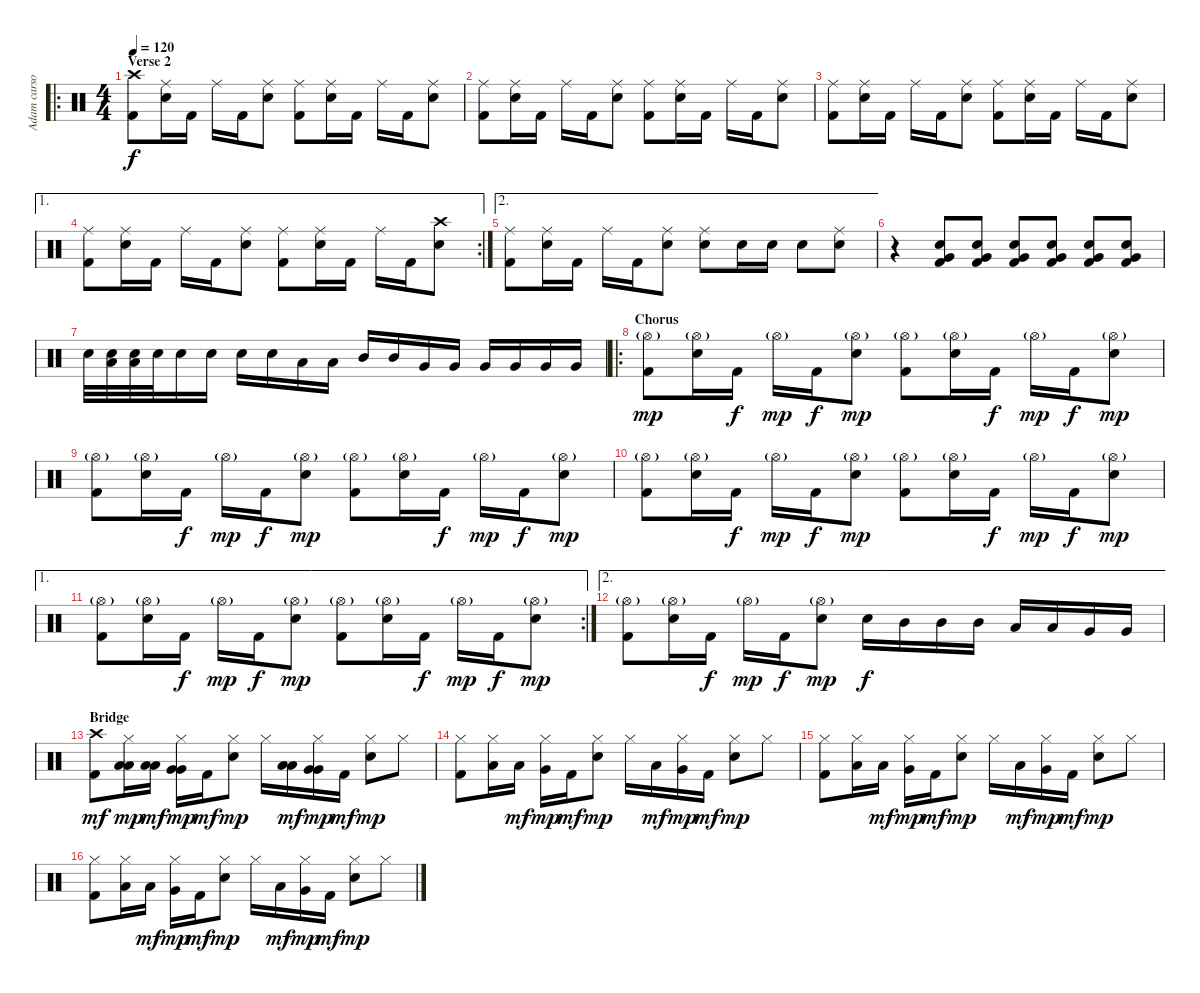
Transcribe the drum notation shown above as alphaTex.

\track ("Adam carson" "Adam carso") {instrument percussion}
\staff {score}
\articulation defaults
\ro
\ts (4 4)
\section ("" "Verse 2")
\tempo 120
\clef neutral
\ks c
("Kick (hit) 2" "Crash high (hit)").8{dy f} ("Ride (middle)" "Snare (hit) 2").16 "Kick (hit) 2".16 "Ride (middle)".16 "Kick (hit) 2".16 ("Ride (middle)" "Snare (hit) 2").8 ("Kick (hit) 2" "Ride (middle)").8 ("Ride (middle)" "Snare (hit) 2").16 "Kick (hit) 2".16 "Ride (middle)".16 "Kick (hit) 2".16 ("Ride (middle)" "Snare (hit) 2").8 |
("Kick (hit) 2" "Ride (middle)").8 ("Ride (middle)" "Snare (hit) 2").16 "Kick (hit) 2".16 "Ride (middle)".16 "Kick (hit) 2".16 ("Ride (middle)" "Snare (hit) 2").8 ("Kick (hit) 2" "Ride (middle)").8 ("Ride (middle)" "Snare (hit) 2").16 "Kick (hit) 2".16 "Ride (middle)".16 "Kick (hit) 2".16 ("Ride (middle)" "Snare (hit) 2").8 |
("Kick (hit) 2" "Ride (middle)").8 ("Ride (middle)" "Snare (hit) 2").16 "Kick (hit) 2".16 "Ride (middle)".16 "Kick (hit) 2".16 ("Ride (middle)" "Snare (hit) 2").8 ("Kick (hit) 2" "Ride (middle)").8 ("Ride (middle)" "Snare (hit) 2").16 "Kick (hit) 2".16 "Ride (middle)".16 "Kick (hit) 2".16 ("Ride (middle)" "Snare (hit) 2").8 |
\ae 1
\rc 2
("Kick (hit) 2" "Ride (middle)").8 ("Ride (middle)" "Snare (hit) 2").16 "Kick (hit) 2".16 "Ride (middle)".16 "Kick (hit) 2".16 ("Ride (middle)" "Snare (hit) 2").8 ("Kick (hit) 2" "Ride (middle)").8 ("Ride (middle)" "Snare (hit) 2").16 "Kick (hit) 2".16 "Ride (middle)".16 "Kick (hit) 2".16 ("Crash high (hit)" "Snare (hit) 2").8 |
\ae 2
("Kick (hit) 2" "Ride (middle)").8 ("Ride (middle)" "Snare (hit) 2").16 "Kick (hit) 2".16 "Ride (middle)".16 "Kick (hit) 2".16 ("Ride (middle)" "Snare (hit) 2").8 ("Ride (middle)" "Snare (hit) 2").8 "Snare (hit) 2".16 "Snare (hit) 2".16 "Snare (hit) 2".8 ("Ride (middle)" "Snare (hit) 2").8 |
r.4{volume 13} ("Kick (hit) 2" "Snare (hit) 2" "Very Low Tom (hit)").8{volume 16} ("Kick (hit) 2" "Snare (hit) 2" "Very Low Tom (hit)").8 ("Kick (hit) 2" "Snare (hit) 2" "Very Low Tom (hit)").8 ("Kick (hit) 2" "Snare (hit) 2" "Very Low Tom (hit)").8 ("Kick (hit) 2" "Snare (hit) 2" "Very Low Tom (hit)").8 ("Kick (hit) 2" "Snare (hit) 2" "Very Low Tom (hit)").8 |
"Snare (hit) 2".32 ("Snare (hit) 2" "Low Tom (hit)").32 ("Snare (hit) 2" "Low Tom (hit)").32 "Snare (hit) 2".32 "Snare (hit) 2".16 "Snare (hit) 2".16 "Snare (hit) 2".16 "Snare (hit) 2".16 "Low Tom (hit)".16 "Low Tom (hit)".16 "Mid Tom (hit)".16 "Mid Tom (hit)".16 "Very Low Tom (hit)".16 "Very Low Tom (hit)".16 "Very Low Tom (hit)".16 "Very Low Tom (hit)".16 "Very Low Tom (hit)".16 "Very Low Tom (hit)".16 |
\ro
\section ("" "Chorus")
("Kick (hit) 2" "Hi-Hat (open)"{g}).8{dy mp} ("Hi-Hat (open)"{g} "Snare (hit) 2").16 "Kick (hit) 2".16{dy f} "Hi-Hat (open)"{g}.16{dy mp} "Kick (hit) 2".16{dy f} ("Hi-Hat (open)"{g} "Snare (hit) 2").8{dy mp} ("Kick (hit) 2" "Hi-Hat (open)"{g}).8 ("Hi-Hat (open)"{g} "Snare (hit) 2").16 "Kick (hit) 2".16{dy f} "Hi-Hat (open)"{g}.16{dy mp} "Kick (hit) 2".16{dy f} ("Hi-Hat (open)"{g} "Snare (hit) 2").8{dy mp} |
("Kick (hit) 2" "Hi-Hat (open)"{g}).8 ("Hi-Hat (open)"{g} "Snare (hit) 2").16 "Kick (hit) 2".16{dy f} "Hi-Hat (open)"{g}.16{dy mp} "Kick (hit) 2".16{dy f} ("Hi-Hat (open)"{g} "Snare (hit) 2").8{dy mp} ("Kick (hit) 2" "Hi-Hat (open)"{g}).8 ("Hi-Hat (open)"{g} "Snare (hit) 2").16 "Kick (hit) 2".16{dy f} "Hi-Hat (open)"{g}.16{dy mp} "Kick (hit) 2".16{dy f} ("Hi-Hat (open)"{g} "Snare (hit) 2").8{dy mp} |
("Kick (hit) 2" "Hi-Hat (open)"{g}).8 ("Hi-Hat (open)"{g} "Snare (hit) 2").16 "Kick (hit) 2".16{dy f} "Hi-Hat (open)"{g}.16{dy mp} "Kick (hit) 2".16{dy f} ("Hi-Hat (open)"{g} "Snare (hit) 2").8{dy mp} ("Kick (hit) 2" "Hi-Hat (open)"{g}).8 ("Hi-Hat (open)"{g} "Snare (hit) 2").16 "Kick (hit) 2".16{dy f} "Hi-Hat (open)"{g}.16{dy mp} "Kick (hit) 2".16{dy f} ("Hi-Hat (open)"{g} "Snare (hit) 2").8{dy mp} |
\ae 1
\rc 2
("Kick (hit) 2" "Hi-Hat (open)"{g}).8 ("Hi-Hat (open)"{g} "Snare (hit) 2").16 "Kick (hit) 2".16{dy f} "Hi-Hat (open)"{g}.16{dy mp} "Kick (hit) 2".16{dy f} ("Hi-Hat (open)"{g} "Snare (hit) 2").8{dy mp} ("Kick (hit) 2" "Hi-Hat (open)"{g}).8 ("Hi-Hat (open)"{g} "Snare (hit) 2").16 "Kick (hit) 2".16{dy f} "Hi-Hat (open)"{g}.16{dy mp} "Kick (hit) 2".16{dy f} ("Hi-Hat (open)"{g} "Snare (hit) 2").8{dy mp} |
\ae 2
("Kick (hit) 2" "Hi-Hat (open)"{g}).8 ("Hi-Hat (open)"{g} "Snare (hit) 2").16 "Kick (hit) 2".16{dy f} "Hi-Hat (open)"{g}.16{dy mp} "Kick (hit) 2".16{dy f} ("Hi-Hat (open)"{g} "Snare (hit) 2").8{dy mp} "Snare (hit) 2".16{dy f} "Mid Tom (hit)".16 "Mid Tom (hit)".16 "Mid Tom (hit)".16 "Low Tom (hit)".16 "Low Tom (hit)".16 "Very Low Tom (hit)".16 "Very Low Tom (hit)".16 |
\section ("" "Bridge")
("Kick (hit) 2" "Crash high (hit)").8{dy mf} ("Low Tom (hit)" "Low Tom (hit)" "Hi-Hat (closed)").16{dy mp} ("Low Tom (hit)" "Low Tom (hit)").16{dy mf} ("Very Low Tom (hit)" "Very Low Tom (hit)" "Hi-Hat (closed)").16{dy mp} "Kick (hit) 2".16{dy mf} ("Snare (hit) 2" "Hi-Hat (closed)").8{dy mp} "Hi-Hat (closed)".16 ("Low Tom (hit)" "Low Tom (hit)").16{dy mf} ("Very Low Tom (hit)" "Very Low Tom (hit)" "Hi-Hat (closed)").16{dy mp} "Kick (hit) 2".16{dy mf} ("Snare (hit) 2" "Hi-Hat (closed)").8{dy mp} "Hi-Hat (closed)".8 |
("Kick (hit) 2" "Hi-Hat (closed)").8 ("Low Tom (hit)" "Hi-Hat (closed)").16 "Low Tom (hit)".16{dy mf} ("Very Low Tom (hit)" "Hi-Hat (closed)").16{dy mp} "Kick (hit) 2".16{dy mf} ("Snare (hit) 2" "Hi-Hat (closed)").8{dy mp} "Hi-Hat (closed)".16 "Low Tom (hit)".16{dy mf} ("Very Low Tom (hit)" "Hi-Hat (closed)").16{dy mp} "Kick (hit) 2".16{dy mf} ("Snare (hit) 2" "Hi-Hat (closed)").8{dy mp} "Hi-Hat (closed)".8 |
("Kick (hit) 2" "Hi-Hat (closed)").8 ("Low Tom (hit)" "Hi-Hat (closed)").16 "Low Tom (hit)".16{dy mf} ("Very Low Tom (hit)" "Hi-Hat (closed)").16{dy mp} "Kick (hit) 2".16{dy mf} ("Snare (hit) 2" "Hi-Hat (closed)").8{dy mp} "Hi-Hat (closed)".16 "Low Tom (hit)".16{dy mf} ("Very Low Tom (hit)" "Hi-Hat (closed)").16{dy mp} "Kick (hit) 2".16{dy mf} ("Snare (hit) 2" "Hi-Hat (closed)").8{dy mp} "Hi-Hat (closed)".8 |
("Kick (hit) 2" "Hi-Hat (closed)").8 ("Low Tom (hit)" "Hi-Hat (closed)").16 "Low Tom (hit)".16{dy mf} ("Very Low Tom (hit)" "Hi-Hat (closed)").16{dy mp} "Kick (hit) 2".16{dy mf} ("Snare (hit) 2" "Hi-Hat (closed)").8{dy mp} "Hi-Hat (closed)".16 "Low Tom (hit)".16{dy mf} ("Very Low Tom (hit)" "Hi-Hat (closed)").16{dy mp} "Kick (hit) 2".16{dy mf} ("Snare (hit) 2" "Hi-Hat (closed)").8{dy mp} "Hi-Hat (closed)".8
